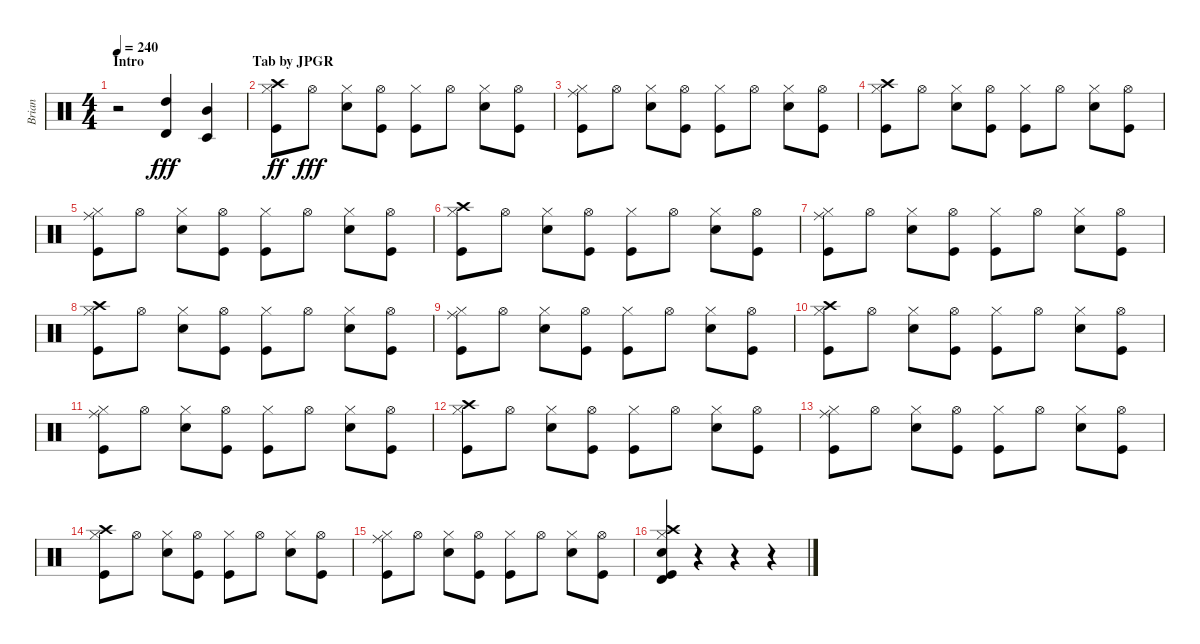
\track ("Brian" "Brian") {instrument percussion}
\staff {score}
\articulation defaults
\ts (4 4)
\section ("" "Intro                               Tab by JPGR")
\tempo 240
\clef neutral
\ks c
r.2{dy fff} ("Timbale high (hit)" "High Tom (hit)").4{volume 13} ("Timbale low (hit)" "Mid Tom (hit)").4 |
("Crash high (hit)" "Hi-Hat (closed)" "Kick (hit)").8{dy ff volume 7} "Hi-Hat (open)".8{dy fff} ("Hi-Hat (closed)" "Snare (hit) 2").8 ("Hi-Hat (open)" "Kick (hit)").8 ("Hi-Hat (closed)" "Kick (hit)").8 "Hi-Hat (open)".8 ("Hi-Hat (closed)" "Snare (hit) 2").8 ("Hi-Hat (open)" "Kick (hit)").8 |
("Ride (middle)" "Hi-Hat (closed)" "Kick (hit)").8 "Hi-Hat (open)".8 ("Hi-Hat (closed)" "Snare (hit) 2").8 ("Hi-Hat (open)" "Kick (hit)").8 ("Hi-Hat (closed)" "Kick (hit)").8 "Hi-Hat (open)".8 ("Hi-Hat (closed)" "Snare (hit) 2").8 ("Hi-Hat (open)" "Kick (hit)").8 |
("Crash high (hit)" "Hi-Hat (closed)" "Kick (hit)").8 "Hi-Hat (open)".8 ("Hi-Hat (closed)" "Snare (hit) 2").8 ("Hi-Hat (open)" "Kick (hit)").8 ("Hi-Hat (closed)" "Kick (hit)").8 "Hi-Hat (open)".8 ("Hi-Hat (closed)" "Snare (hit) 2").8 ("Hi-Hat (open)" "Kick (hit)").8 |
("Ride (middle)" "Hi-Hat (closed)" "Kick (hit)").8 "Hi-Hat (open)".8 ("Hi-Hat (closed)" "Snare (hit) 2").8 ("Hi-Hat (open)" "Kick (hit)").8 ("Hi-Hat (closed)" "Kick (hit)").8 "Hi-Hat (open)".8 ("Hi-Hat (closed)" "Snare (hit) 2").8 ("Hi-Hat (open)" "Kick (hit)").8 |
("Crash high (hit)" "Hi-Hat (closed)" "Kick (hit)").8 "Hi-Hat (open)".8 ("Hi-Hat (closed)" "Snare (hit) 2").8 ("Hi-Hat (open)" "Kick (hit)").8 ("Hi-Hat (closed)" "Kick (hit)").8 "Hi-Hat (open)".8 ("Hi-Hat (closed)" "Snare (hit) 2").8 ("Hi-Hat (open)" "Kick (hit)").8 |
("Ride (middle)" "Hi-Hat (closed)" "Kick (hit)").8 "Hi-Hat (open)".8 ("Hi-Hat (closed)" "Snare (hit) 2").8 ("Hi-Hat (open)" "Kick (hit)").8 ("Hi-Hat (closed)" "Kick (hit)").8 "Hi-Hat (open)".8 ("Hi-Hat (closed)" "Snare (hit) 2").8 ("Hi-Hat (open)" "Kick (hit)").8 |
("Crash high (hit)" "Hi-Hat (closed)" "Kick (hit)").8 "Hi-Hat (open)".8 ("Hi-Hat (closed)" "Snare (hit) 2").8 ("Hi-Hat (open)" "Kick (hit)").8 ("Hi-Hat (closed)" "Kick (hit)").8 "Hi-Hat (open)".8 ("Hi-Hat (closed)" "Snare (hit) 2").8 ("Hi-Hat (open)" "Kick (hit)").8 |
("Ride (middle)" "Hi-Hat (closed)" "Kick (hit)").8 "Hi-Hat (open)".8 ("Hi-Hat (closed)" "Snare (hit) 2").8 ("Hi-Hat (open)" "Kick (hit)").8 ("Hi-Hat (closed)" "Kick (hit)").8 "Hi-Hat (open)".8 ("Hi-Hat (closed)" "Snare (hit) 2").8 ("Hi-Hat (open)" "Kick (hit)").8 |
("Crash high (hit)" "Hi-Hat (closed)" "Kick (hit)").8 "Hi-Hat (open)".8 ("Hi-Hat (closed)" "Snare (hit) 2").8 ("Hi-Hat (open)" "Kick (hit)").8 ("Hi-Hat (closed)" "Kick (hit)").8 "Hi-Hat (open)".8 ("Hi-Hat (closed)" "Snare (hit) 2").8 ("Hi-Hat (open)" "Kick (hit)").8 |
("Ride (middle)" "Hi-Hat (closed)" "Kick (hit)").8 "Hi-Hat (open)".8 ("Hi-Hat (closed)" "Snare (hit) 2").8 ("Hi-Hat (open)" "Kick (hit)").8 ("Hi-Hat (closed)" "Kick (hit)").8 "Hi-Hat (open)".8 ("Hi-Hat (closed)" "Snare (hit) 2").8 ("Hi-Hat (open)" "Kick (hit)").8 |
("Crash high (hit)" "Hi-Hat (closed)" "Kick (hit)").8 "Hi-Hat (open)".8 ("Hi-Hat (closed)" "Snare (hit) 2").8 ("Hi-Hat (open)" "Kick (hit)").8 ("Hi-Hat (closed)" "Kick (hit)").8 "Hi-Hat (open)".8 ("Hi-Hat (closed)" "Snare (hit) 2").8 ("Hi-Hat (open)" "Kick (hit)").8 |
("Ride (middle)" "Hi-Hat (closed)" "Kick (hit)").8 "Hi-Hat (open)".8 ("Hi-Hat (closed)" "Snare (hit) 2").8 ("Hi-Hat (open)" "Kick (hit)").8 ("Hi-Hat (closed)" "Kick (hit)").8 "Hi-Hat (open)".8 ("Hi-Hat (closed)" "Snare (hit) 2").8 ("Hi-Hat (open)" "Kick (hit)").8 |
("Crash high (hit)" "Hi-Hat (closed)" "Kick (hit)").8 "Hi-Hat (open)".8 ("Hi-Hat (closed)" "Snare (hit) 2").8 ("Hi-Hat (open)" "Kick (hit)").8 ("Hi-Hat (closed)" "Kick (hit)").8 "Hi-Hat (open)".8 ("Hi-Hat (closed)" "Snare (hit) 2").8 ("Hi-Hat (open)" "Kick (hit)").8 |
("Ride (middle)" "Hi-Hat (closed)" "Kick (hit)").8 "Hi-Hat (open)".8 ("Hi-Hat (closed)" "Snare (hit) 2").8 ("Hi-Hat (open)" "Kick (hit)").8 ("Hi-Hat (closed)" "Kick (hit)").8 "Hi-Hat (open)".8 ("Hi-Hat (closed)" "Snare (hit) 2").8 ("Hi-Hat (open)" "Kick (hit)").8 |
("Crash high (hit)" "Hi-Hat (closed)" "Snare (hit) 2" "Timbale high (hit)" "Kick (hit)").4 r.4 r.4 r.4
